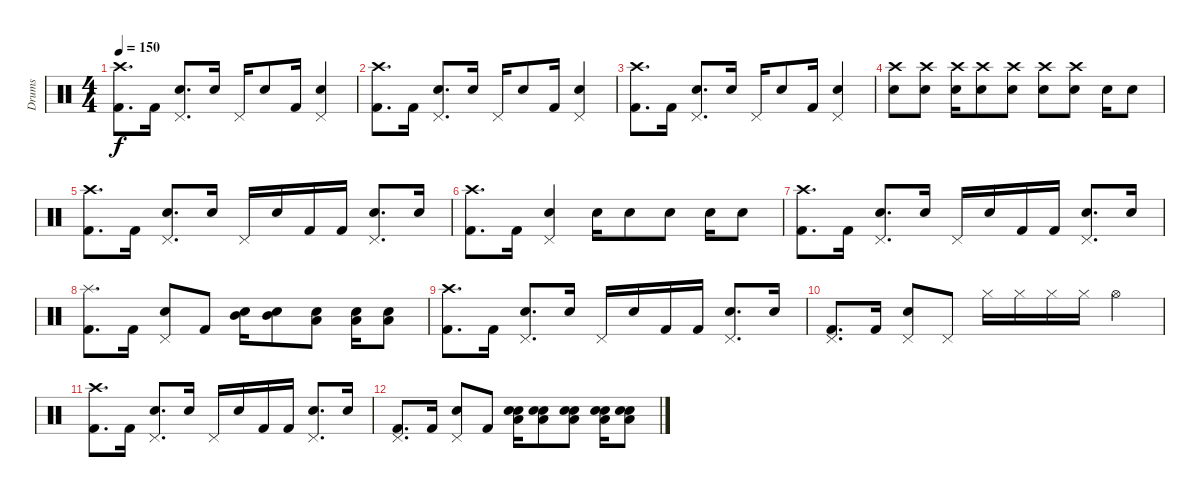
\track ("Drums" "Drums") {instrument percussion}
\staff {score}
\articulation defaults
\ts (4 4)
\tempo 150
\clef neutral
\ks c
("Kick (hit) 2" "Crash high (hit)").8{d dy f} "Kick (hit) 2".16 ("Electric Snare (hit)" "Pedal Hi-Hat (hit)").8{d} "Electric Snare (hit)".16 "Pedal Hi-Hat (hit)".16 "Electric Snare (hit)".8 "Kick (hit) 2".16 ("Electric Snare (hit)" "Pedal Hi-Hat (hit)").4 |
("Kick (hit) 2" "Crash high (hit)").8{d} "Kick (hit) 2".16 ("Electric Snare (hit)" "Pedal Hi-Hat (hit)").8{d} "Electric Snare (hit)".16 "Pedal Hi-Hat (hit)".16 "Electric Snare (hit)".8 "Kick (hit) 2".16 ("Electric Snare (hit)" "Pedal Hi-Hat (hit)").4 |
("Kick (hit) 2" "Crash high (hit)").8{d} "Kick (hit) 2".16 ("Electric Snare (hit)" "Pedal Hi-Hat (hit)").8{d} "Electric Snare (hit)".16 "Pedal Hi-Hat (hit)".16 "Electric Snare (hit)".8 "Kick (hit) 2".16 ("Electric Snare (hit)" "Pedal Hi-Hat (hit)").4 |
("Electric Snare (hit)" "Crash high (hit)").8 ("Electric Snare (hit)" "Crash high (hit)").8 ("Electric Snare (hit)" "Crash high (hit)").16 ("Electric Snare (hit)" "Crash high (hit)").8 ("Electric Snare (hit)" "Crash high (hit)").8 ("Electric Snare (hit)" "Crash high (hit)").8 ("Electric Snare (hit)" "Crash high (hit)").8 "Electric Snare (hit)".16 "Electric Snare (hit)".8 |
("Kick (hit) 2" "Crash high (hit)").8{d} "Kick (hit) 2".16 ("Electric Snare (hit)" "Pedal Hi-Hat (hit)").8{d} "Electric Snare (hit)".16 "Pedal Hi-Hat (hit)".16 "Electric Snare (hit)".16 "Kick (hit) 2".16 "Kick (hit) 2".16 ("Electric Snare (hit)" "Pedal Hi-Hat (hit)").8{d} "Electric Snare (hit)".16 |
("Kick (hit) 2" "Crash high (hit)").8{d} "Kick (hit) 2".16 ("Electric Snare (hit)" "Pedal Hi-Hat (hit)").4 "Electric Snare (hit)".16 "Electric Snare (hit)".8 "Electric Snare (hit)".8 "Electric Snare (hit)".16 "Electric Snare (hit)".8 |
("Kick (hit) 2" "Crash high (hit)").8{d} "Kick (hit) 2".16 ("Electric Snare (hit)" "Pedal Hi-Hat (hit)").8{d} "Electric Snare (hit)".16 "Pedal Hi-Hat (hit)".16 "Electric Snare (hit)".16 "Kick (hit) 2".16 "Kick (hit) 2".16 ("Electric Snare (hit)" "Pedal Hi-Hat (hit)").8{d} "Electric Snare (hit)".16 |
("Kick (hit) 2" "Splash (hit)").8{d} "Kick (hit) 2".16 ("Electric Snare (hit)" "Pedal Hi-Hat (hit)").8 "Kick (hit) 2".8 ("Electric Snare (hit)" "Mid Tom (hit)").16 ("Electric Snare (hit)" "Mid Tom (hit)").8 ("Electric Snare (hit)" "Low Tom (hit)").8 ("Electric Snare (hit)" "Low Floor Tom (hit)").16 ("Electric Snare (hit)" "Low Floor Tom (hit)").8 |
("Kick (hit) 2" "Crash high (hit)").8{d} "Kick (hit) 2".16 ("Electric Snare (hit)" "Pedal Hi-Hat (hit)").8{d} "Electric Snare (hit)".16 "Pedal Hi-Hat (hit)".16 "Electric Snare (hit)".16 "Kick (hit) 2".16 "Kick (hit) 2".16 ("Electric Snare (hit)" "Pedal Hi-Hat (hit)").8{d} "Electric Snare (hit)".16 |
("Kick (hit) 2" "Pedal Hi-Hat (hit)").8{d} "Kick (hit) 2".16 ("Electric Snare (hit)" "Pedal Hi-Hat (hit)").8 "Pedal Hi-Hat (hit)".8 "Hi-Hat (closed)".16 "Hi-Hat (closed)".16 "Hi-Hat (closed)".16 "Hi-Hat (closed)".16 "Hi-Hat (open)".4 |
("Kick (hit) 2" "Crash high (hit)").8{d} "Kick (hit) 2".16 ("Electric Snare (hit)" "Pedal Hi-Hat (hit)").8{d} "Electric Snare (hit)".16 "Pedal Hi-Hat (hit)".16 "Electric Snare (hit)".16 "Kick (hit) 2".16 "Kick (hit) 2".16 ("Electric Snare (hit)" "Pedal Hi-Hat (hit)").8{d} "Electric Snare (hit)".16 |
("Kick (hit) 2" "Pedal Hi-Hat (hit)").8{d} "Kick (hit) 2".16 ("Electric Snare (hit)" "Pedal Hi-Hat (hit)").8 "Kick (hit) 2".8 ("Electric Snare (hit)" "Electric Snare (hit)" "Low Floor Tom (hit)").16 ("Electric Snare (hit)" "Electric Snare (hit)" "Low Floor Tom (hit)").8 ("Electric Snare (hit)" "Electric Snare (hit)" "Low Floor Tom (hit)").8 ("Electric Snare (hit)" "Electric Snare (hit)" "Low Floor Tom (hit)").16 ("Electric Snare (hit)" "Electric Snare (hit)" "Low Floor Tom (hit)").8
